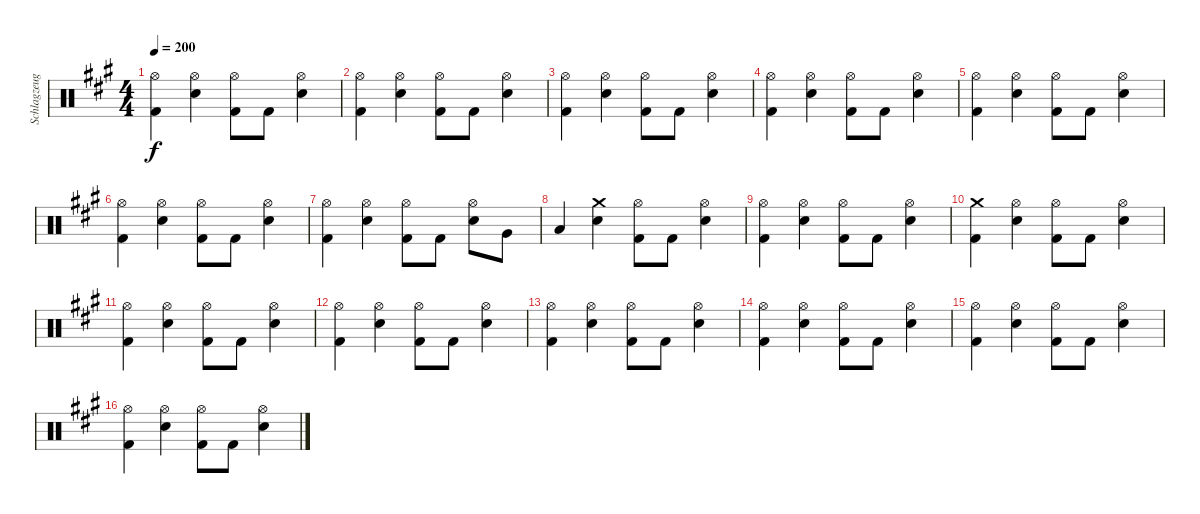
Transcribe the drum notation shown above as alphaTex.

\track ("Schlagzeug" "Schlagzeug") {instrument percussion}
\staff {score}
\articulation defaults
\ts (4 4)
\tempo 200
\clef neutral
\ks a
("Hi-Hat (open)" "Kick (hit) 2").4{dy f} ("Hi-Hat (open)" "Snare (hit) 2").4 ("Hi-Hat (open)" "Kick (hit) 2").8 "Kick (hit) 2".8 ("Hi-Hat (open)" "Snare (hit) 2").4 |
("Hi-Hat (open)" "Kick (hit) 2").4 ("Hi-Hat (open)" "Snare (hit) 2").4 ("Hi-Hat (open)" "Kick (hit) 2").8 "Kick (hit) 2".8 ("Hi-Hat (open)" "Snare (hit) 2").4 |
("Hi-Hat (open)" "Kick (hit) 2").4 ("Hi-Hat (open)" "Snare (hit) 2").4 ("Hi-Hat (open)" "Kick (hit) 2").8 "Kick (hit) 2".8 ("Hi-Hat (open)" "Snare (hit) 2").4 |
("Hi-Hat (open)" "Kick (hit) 2").4 ("Hi-Hat (open)" "Snare (hit) 2").4 ("Hi-Hat (open)" "Kick (hit) 2").8 "Kick (hit) 2".8 ("Hi-Hat (open)" "Snare (hit) 2").4 |
("Hi-Hat (open)" "Kick (hit) 2").4 ("Hi-Hat (open)" "Snare (hit) 2").4 ("Hi-Hat (open)" "Kick (hit) 2").8 "Kick (hit) 2".8 ("Hi-Hat (open)" "Snare (hit) 2").4 |
("Hi-Hat (open)" "Kick (hit) 2").4 ("Hi-Hat (open)" "Snare (hit) 2").4 ("Hi-Hat (open)" "Kick (hit) 2").8 "Kick (hit) 2".8 ("Hi-Hat (open)" "Snare (hit) 2").4 |
("Hi-Hat (open)" "Kick (hit) 2").4 ("Hi-Hat (open)" "Snare (hit) 2").4 ("Hi-Hat (open)" "Kick (hit) 2").8 "Kick (hit) 2".8 ("Hi-Hat (open)" "Snare (hit) 2").8 "Very Low Tom (hit)".8 |
"Low Floor Tom (hit)".4 ("Crash medium (hit)" "Snare (hit) 2").4 ("Hi-Hat (open)" "Kick (hit) 2").8 "Kick (hit) 2".8 ("Hi-Hat (open)" "Snare (hit) 2").4 |
("Hi-Hat (open)" "Kick (hit) 2").4 ("Hi-Hat (open)" "Snare (hit) 2").4 ("Hi-Hat (open)" "Kick (hit) 2").8 "Kick (hit) 2".8 ("Hi-Hat (open)" "Snare (hit) 2").4 |
("Crash medium (hit)" "Kick (hit) 2").4 ("Hi-Hat (open)" "Snare (hit) 2").4 ("Hi-Hat (open)" "Kick (hit) 2").8 "Kick (hit) 2".8 ("Hi-Hat (open)" "Snare (hit) 2").4 |
("Hi-Hat (open)" "Kick (hit) 2").4 ("Hi-Hat (open)" "Snare (hit) 2").4 ("Hi-Hat (open)" "Kick (hit) 2").8 "Kick (hit) 2".8 ("Hi-Hat (open)" "Snare (hit) 2").4 |
("Hi-Hat (open)" "Kick (hit) 2").4 ("Hi-Hat (open)" "Snare (hit) 2").4 ("Hi-Hat (open)" "Kick (hit) 2").8 "Kick (hit) 2".8 ("Hi-Hat (open)" "Snare (hit) 2").4 |
("Hi-Hat (open)" "Kick (hit) 2").4 ("Hi-Hat (open)" "Snare (hit) 2").4 ("Hi-Hat (open)" "Kick (hit) 2").8 "Kick (hit) 2".8 ("Hi-Hat (open)" "Snare (hit) 2").4 |
("Hi-Hat (open)" "Kick (hit) 2").4 ("Hi-Hat (open)" "Snare (hit) 2").4 ("Hi-Hat (open)" "Kick (hit) 2").8 "Kick (hit) 2".8 ("Hi-Hat (open)" "Snare (hit) 2").4 |
("Hi-Hat (open)" "Kick (hit) 2").4 ("Hi-Hat (open)" "Snare (hit) 2").4 ("Hi-Hat (open)" "Kick (hit) 2").8 "Kick (hit) 2".8 ("Hi-Hat (open)" "Snare (hit) 2").4 |
("Hi-Hat (open)" "Kick (hit) 2").4 ("Hi-Hat (open)" "Snare (hit) 2").4 ("Hi-Hat (open)" "Kick (hit) 2").8 "Kick (hit) 2".8 ("Hi-Hat (open)" "Snare (hit) 2").4
